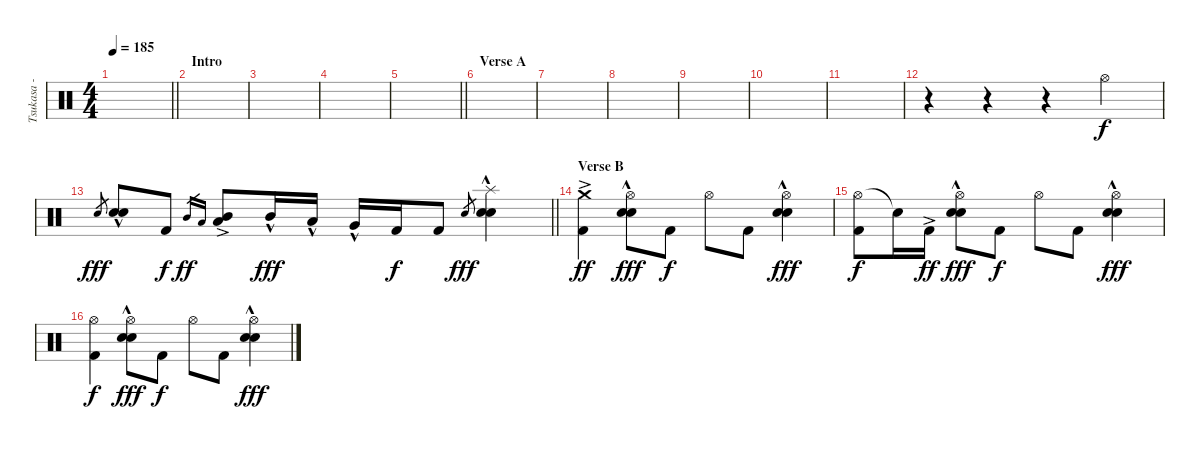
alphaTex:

\track ("Tsukasa - Drums" "Tsukasa - ") {instrument percussion}
\staff {score}
\articulation defaults
\ts (4 4)
\tempo 185
\clef neutral
\barLineRight lightlight
\ks c
|
\section ("" "Intro")
|
|
|
\barLineRight lightlight
|
\section ("" "Verse A")
|
|
|
|
|
|
r.4 r.4 r.4 "Hi-Hat (open)".4 |
\barLineRight lightlight "Electric Snare (hit)".8{gr dy fff}
("Electric Snare (hit)"{hac} "Snare (hit) 2"{hac}).8 "Kick (hit) 2".8{dy f} "Mid Tom (hit)".16{gr dy ff} "Low Tom (hit)".16{gr} ("Mid Tom (hit)"{ac} "Low Tom (hit)"{ac}).8 "Mid Tom (hit)"{hac}.16{dy fff} "Low Tom (hit)"{hac}.16 "Very Low Tom (hit)"{hac}.16 "Kick (hit) 2".16{dy f} "Kick (hit) 2".8 "Electric Snare (hit)".8{gr dy fff} ("Splash (hit)"{hac} "Electric Snare (hit)"{hac} "Snare (hit) 2"{hac}).4 |
\section ("" "Verse B")
("Crash medium (hit)"{ac} "Kick (hit) 2").4{dy ff} ("Hi-Hat (open)" "Electric Snare (hit)"{hac} "Snare (hit) 2"{hac}).8{dy fff} "Kick (hit) 2".8{dy f} "Hi-Hat (open)".8 "Kick (hit) 2".8 ("Hi-Hat (open)" "Electric Snare (hit)"{hac} "Snare (hit) 2"{hac}).4{dy fff} |
("Hi-Hat (open)" "Kick (hit) 2").8{dy f} "Snare (hit)"{t}.16 "Kick (hit) 2"{ac}.16{dy ff} ("Hi-Hat (open)" "Electric Snare (hit)"{hac} "Snare (hit) 2"{hac}).8{dy fff} "Kick (hit) 2".8{dy f} "Hi-Hat (open)".8 "Kick (hit) 2".8 ("Hi-Hat (open)" "Electric Snare (hit)"{hac} "Snare (hit) 2"{hac}).4{dy fff} |
("Hi-Hat (open)" "Kick (hit) 2").4{dy f} ("Hi-Hat (open)" "Electric Snare (hit)"{hac} "Snare (hit) 2"{hac}).8{dy fff} "Kick (hit) 2".8{dy f} "Hi-Hat (open)".8 "Kick (hit) 2".8 ("Hi-Hat (open)" "Electric Snare (hit)"{hac} "Snare (hit) 2"{hac}).4{dy fff}
